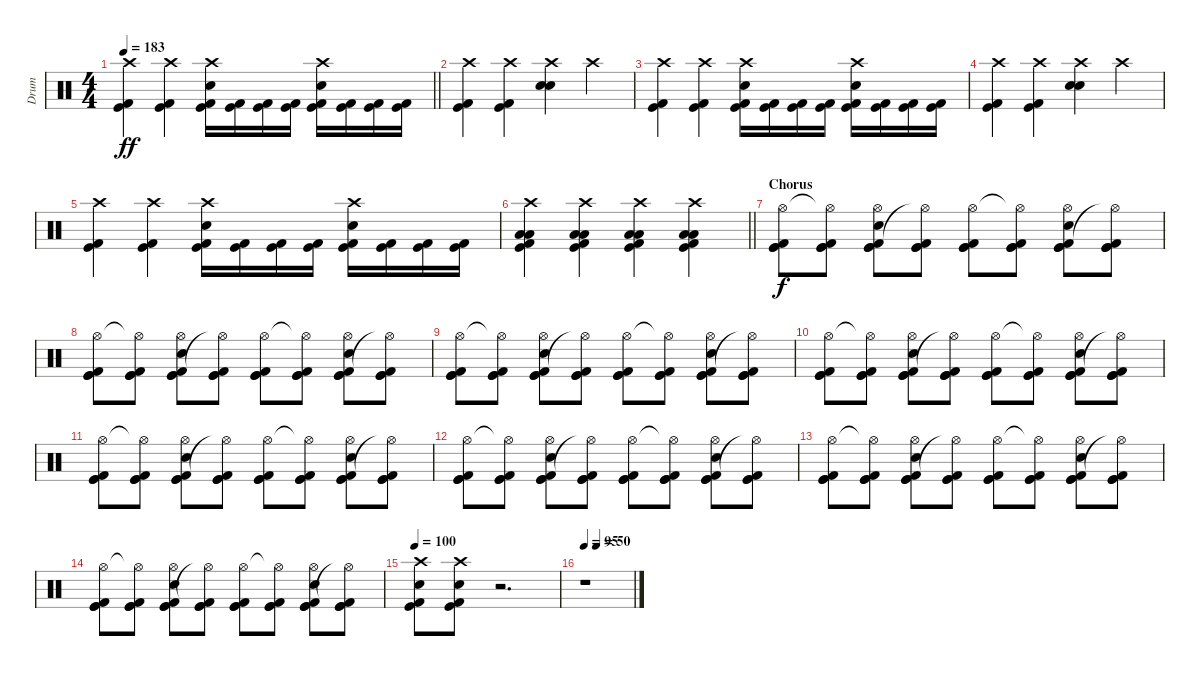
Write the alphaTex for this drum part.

\track ("Drum" "Drum") {instrument percussion}
\staff {score}
\articulation defaults
\ts (4 4)
\tempo 183
\clef neutral
\barLineRight lightlight
\ks c
("Crash high (hit)" "Kick (hit)" "Kick (hit) 2").4{dy ff} ("Crash high (hit)" "Kick (hit)" "Kick (hit) 2").4 ("Crash high (hit)" "Electric Snare (hit)" "Kick (hit) 2" "Kick (hit)").16 ("Kick (hit) 2" "Kick (hit)").16 ("Kick (hit) 2" "Kick (hit)").16 ("Kick (hit) 2" "Kick (hit)").16 ("Crash high (hit)" "Electric Snare (hit)" "Kick (hit) 2" "Kick (hit)").16 ("Kick (hit) 2" "Kick (hit)").16 ("Kick (hit) 2" "Kick (hit)").16 ("Kick (hit) 2" "Kick (hit)").16 |
("Crash high (hit)" "Kick (hit) 2" "Kick (hit)").4 ("Crash high (hit)" "Kick (hit) 2" "Kick (hit)").4 ("Crash high (hit)" "Electric Snare (hit)" "Electric Snare (hit)").4 "Crash high (hit)".4 |
("Crash high (hit)" "Kick (hit)" "Kick (hit) 2").4 ("Crash high (hit)" "Kick (hit)" "Kick (hit) 2").4 ("Crash high (hit)" "Electric Snare (hit)" "Kick (hit) 2" "Kick (hit)").16 ("Kick (hit) 2" "Kick (hit)").16 ("Kick (hit) 2" "Kick (hit)").16 ("Kick (hit) 2" "Kick (hit)").16 ("Crash high (hit)" "Electric Snare (hit)" "Kick (hit) 2" "Kick (hit)").16 ("Kick (hit) 2" "Kick (hit)").16 ("Kick (hit) 2" "Kick (hit)").16 ("Kick (hit) 2" "Kick (hit)").16 |
("Crash high (hit)" "Kick (hit) 2" "Kick (hit)").4 ("Crash high (hit)" "Kick (hit) 2" "Kick (hit)").4 ("Crash high (hit)" "Electric Snare (hit)" "Electric Snare (hit)").4 "Crash high (hit)".4 |
("Crash high (hit)" "Kick (hit)" "Kick (hit) 2").4 ("Crash high (hit)" "Kick (hit)" "Kick (hit) 2").4 ("Crash high (hit)" "Electric Snare (hit)" "Kick (hit) 2" "Kick (hit)").16 ("Kick (hit) 2" "Kick (hit)").16 ("Kick (hit) 2" "Kick (hit)").16 ("Kick (hit) 2" "Kick (hit)").16 ("Crash high (hit)" "Electric Snare (hit)" "Kick (hit) 2" "Kick (hit)").16 ("Kick (hit) 2" "Kick (hit)").16 ("Kick (hit) 2" "Kick (hit)").16 ("Kick (hit) 2" "Kick (hit)").16 |
\barLineRight lightlight
("Low Floor Tom (hit)" "Low Floor Tom (hit)" "Crash high (hit)" "Kick (hit) 2" "Kick (hit)").4 ("Low Floor Tom (hit)" "Low Floor Tom (hit)" "Crash high (hit)" "Kick (hit) 2" "Kick (hit)").4 ("Low Floor Tom (hit)" "Low Floor Tom (hit)" "Crash high (hit)" "Kick (hit) 2" "Kick (hit)").4 ("Low Floor Tom (hit)" "Low Floor Tom (hit)" "Crash high (hit)" "Kick (hit) 2" "Kick (hit)").4 |
\section ("" "Chorus")
("Kick (hit) 2" "Hi-Hat (open)" "Kick (hit)" "Kick (hit)").8{dy f} ("Kick (hit) 2" "Hi-Hat (open)"{t} "Kick (hit)" "Kick (hit)").8 ("Electric Snare (hit)" "Kick (hit) 2" "Hi-Hat (open)" "Kick (hit)" "Kick (hit)").8 ("Kick (hit) 2" "Hi-Hat (open)"{t} "Kick (hit)" "Kick (hit)").8 ("Kick (hit) 2" "Hi-Hat (open)" "Kick (hit)" "Kick (hit)").8 ("Kick (hit) 2" "Hi-Hat (open)"{t} "Kick (hit)" "Kick (hit)").8 ("Electric Snare (hit)" "Kick (hit) 2" "Hi-Hat (open)" "Kick (hit)" "Kick (hit)").8 ("Kick (hit) 2" "Hi-Hat (open)"{t} "Kick (hit)" "Kick (hit)").8 |
("Kick (hit) 2" "Hi-Hat (open)" "Kick (hit)" "Kick (hit)").8 ("Kick (hit) 2" "Hi-Hat (open)"{t} "Kick (hit)" "Kick (hit)").8 ("Electric Snare (hit)" "Kick (hit) 2" "Hi-Hat (open)" "Kick (hit)" "Kick (hit)").8 ("Kick (hit) 2" "Hi-Hat (open)"{t} "Kick (hit)" "Kick (hit)").8 ("Kick (hit) 2" "Hi-Hat (open)" "Kick (hit)" "Kick (hit)").8 ("Kick (hit) 2" "Hi-Hat (open)"{t} "Kick (hit)" "Kick (hit)").8 ("Electric Snare (hit)" "Kick (hit) 2" "Hi-Hat (open)" "Kick (hit)" "Kick (hit)").8 ("Kick (hit) 2" "Hi-Hat (open)"{t} "Kick (hit)" "Kick (hit)").8 |
("Kick (hit) 2" "Hi-Hat (open)" "Kick (hit)" "Kick (hit)").8 ("Kick (hit) 2" "Hi-Hat (open)"{t} "Kick (hit)" "Kick (hit)").8 ("Electric Snare (hit)" "Kick (hit) 2" "Hi-Hat (open)" "Kick (hit)" "Kick (hit)").8 ("Kick (hit) 2" "Hi-Hat (open)"{t} "Kick (hit)" "Kick (hit)").8 ("Kick (hit) 2" "Hi-Hat (open)" "Kick (hit)" "Kick (hit)").8 ("Kick (hit) 2" "Hi-Hat (open)"{t} "Kick (hit)" "Kick (hit)").8 ("Electric Snare (hit)" "Kick (hit) 2" "Hi-Hat (open)" "Kick (hit)" "Kick (hit)").8 ("Kick (hit) 2" "Hi-Hat (open)"{t} "Kick (hit)" "Kick (hit)").8 |
("Kick (hit) 2" "Hi-Hat (open)" "Kick (hit)" "Kick (hit)").8 ("Kick (hit) 2" "Hi-Hat (open)"{t} "Kick (hit)" "Kick (hit)").8 ("Electric Snare (hit)" "Kick (hit) 2" "Hi-Hat (open)" "Kick (hit)" "Kick (hit)").8 ("Kick (hit) 2" "Hi-Hat (open)"{t} "Kick (hit)" "Kick (hit)").8 ("Kick (hit) 2" "Hi-Hat (open)" "Kick (hit)" "Kick (hit)").8 ("Kick (hit) 2" "Hi-Hat (open)"{t} "Kick (hit)" "Kick (hit)").8 ("Electric Snare (hit)" "Kick (hit) 2" "Hi-Hat (open)" "Kick (hit)" "Kick (hit)").8 ("Kick (hit) 2" "Hi-Hat (open)"{t} "Kick (hit)" "Kick (hit)").8 |
("Kick (hit) 2" "Hi-Hat (open)" "Kick (hit)" "Kick (hit)").8 ("Kick (hit) 2" "Hi-Hat (open)"{t} "Kick (hit)" "Kick (hit)").8 ("Electric Snare (hit)" "Kick (hit) 2" "Hi-Hat (open)" "Kick (hit)" "Kick (hit)").8 ("Kick (hit) 2" "Hi-Hat (open)"{t} "Kick (hit)" "Kick (hit)").8 ("Kick (hit) 2" "Hi-Hat (open)" "Kick (hit)" "Kick (hit)").8 ("Kick (hit) 2" "Hi-Hat (open)"{t} "Kick (hit)" "Kick (hit)").8 ("Electric Snare (hit)" "Kick (hit) 2" "Hi-Hat (open)" "Kick (hit)" "Kick (hit)").8 ("Kick (hit) 2" "Hi-Hat (open)"{t} "Kick (hit)" "Kick (hit)").8 |
("Kick (hit) 2" "Hi-Hat (open)" "Kick (hit)" "Kick (hit)").8 ("Kick (hit) 2" "Hi-Hat (open)"{t} "Kick (hit)" "Kick (hit)").8 ("Electric Snare (hit)" "Kick (hit) 2" "Hi-Hat (open)" "Kick (hit)" "Kick (hit)").8 ("Kick (hit) 2" "Hi-Hat (open)"{t} "Kick (hit)" "Kick (hit)").8 ("Kick (hit) 2" "Hi-Hat (open)" "Kick (hit)" "Kick (hit)").8 ("Kick (hit) 2" "Hi-Hat (open)"{t} "Kick (hit)" "Kick (hit)").8 ("Electric Snare (hit)" "Kick (hit) 2" "Hi-Hat (open)" "Kick (hit)" "Kick (hit)").8 ("Kick (hit) 2" "Hi-Hat (open)"{t} "Kick (hit)" "Kick (hit)").8 |
("Kick (hit) 2" "Hi-Hat (open)" "Kick (hit)" "Kick (hit)").8 ("Kick (hit) 2" "Hi-Hat (open)"{t} "Kick (hit)" "Kick (hit)").8 ("Electric Snare (hit)" "Kick (hit) 2" "Hi-Hat (open)" "Kick (hit)" "Kick (hit)").8 ("Kick (hit) 2" "Hi-Hat (open)"{t} "Kick (hit)" "Kick (hit)").8 ("Kick (hit) 2" "Hi-Hat (open)" "Kick (hit)" "Kick (hit)").8 ("Kick (hit) 2" "Hi-Hat (open)"{t} "Kick (hit)" "Kick (hit)").8 ("Electric Snare (hit)" "Kick (hit) 2" "Hi-Hat (open)" "Kick (hit)" "Kick (hit)").8 ("Kick (hit) 2" "Hi-Hat (open)"{t} "Kick (hit)" "Kick (hit)").8 |
("Kick (hit) 2" "Hi-Hat (open)" "Kick (hit)" "Kick (hit)").8 ("Kick (hit) 2" "Hi-Hat (open)"{t} "Kick (hit)" "Kick (hit)").8 ("Electric Snare (hit)" "Kick (hit) 2" "Hi-Hat (open)" "Kick (hit)" "Kick (hit)").8 ("Kick (hit) 2" "Hi-Hat (open)"{t} "Kick (hit)" "Kick (hit)").8 ("Kick (hit) 2" "Hi-Hat (open)" "Kick (hit)" "Kick (hit)").8 ("Kick (hit) 2" "Hi-Hat (open)"{t} "Kick (hit)" "Kick (hit)").8 ("Electric Snare (hit)" "Kick (hit) 2" "Hi-Hat (open)" "Kick (hit)" "Kick (hit)").8 ("Kick (hit) 2" "Hi-Hat (open)"{t} "Kick (hit)" "Kick (hit)").8 |
\tempo 100
("Crash high (hit)" "Electric Snare (hit)" "Kick (hit) 2" "Kick (hit)").8 ("Crash high (hit)" "Electric Snare (hit)" "Kick (hit) 2" "Kick (hit)").8 r.2{d} |
\tempo 95
\tempo (50 0.25)
r.1
